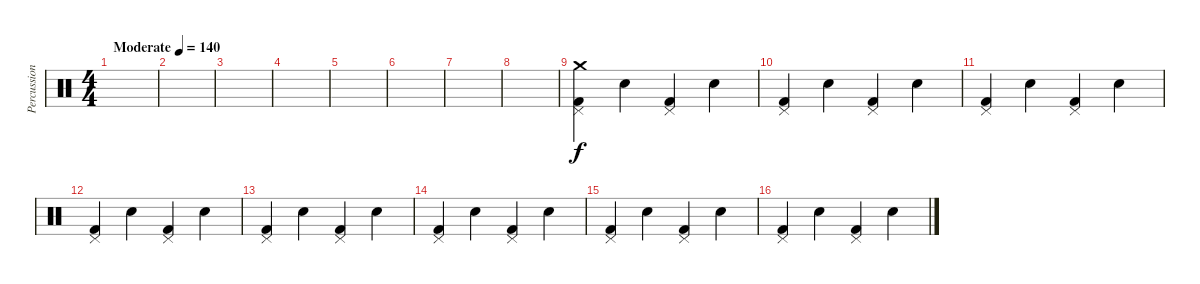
\track ("Percussion" "Percussion") {instrument percussion}
\staff {score}
\articulation defaults
\ts (4 4)
\tempo (140 "Moderate")
\clef neutral
\ks c
|
|
|
|
|
|
|
|
("Kick (hit) 2" "Pedal Hi-Hat (hit)" "Crash medium (hit)").4 "Electric Snare (hit)".4 ("Kick (hit) 2" "Pedal Hi-Hat (hit)").4 "Electric Snare (hit)".4 |
("Kick (hit) 2" "Pedal Hi-Hat (hit)").4 "Electric Snare (hit)".4 ("Kick (hit) 2" "Pedal Hi-Hat (hit)").4 "Electric Snare (hit)".4 |
("Kick (hit) 2" "Pedal Hi-Hat (hit)").4 "Electric Snare (hit)".4 ("Kick (hit) 2" "Pedal Hi-Hat (hit)").4 "Electric Snare (hit)".4 |
("Kick (hit) 2" "Pedal Hi-Hat (hit)").4 "Electric Snare (hit)".4 ("Kick (hit) 2" "Pedal Hi-Hat (hit)").4 "Electric Snare (hit)".4 |
("Kick (hit) 2" "Pedal Hi-Hat (hit)").4 "Electric Snare (hit)".4 ("Kick (hit) 2" "Pedal Hi-Hat (hit)").4 "Electric Snare (hit)".4 |
("Kick (hit) 2" "Pedal Hi-Hat (hit)").4 "Electric Snare (hit)".4 ("Kick (hit) 2" "Pedal Hi-Hat (hit)").4 "Electric Snare (hit)".4 |
("Kick (hit) 2" "Pedal Hi-Hat (hit)").4 "Electric Snare (hit)".4 ("Kick (hit) 2" "Pedal Hi-Hat (hit)").4 "Electric Snare (hit)".4 |
("Kick (hit) 2" "Pedal Hi-Hat (hit)").4 "Electric Snare (hit)".4 ("Kick (hit) 2" "Pedal Hi-Hat (hit)").4 "Electric Snare (hit)".4
